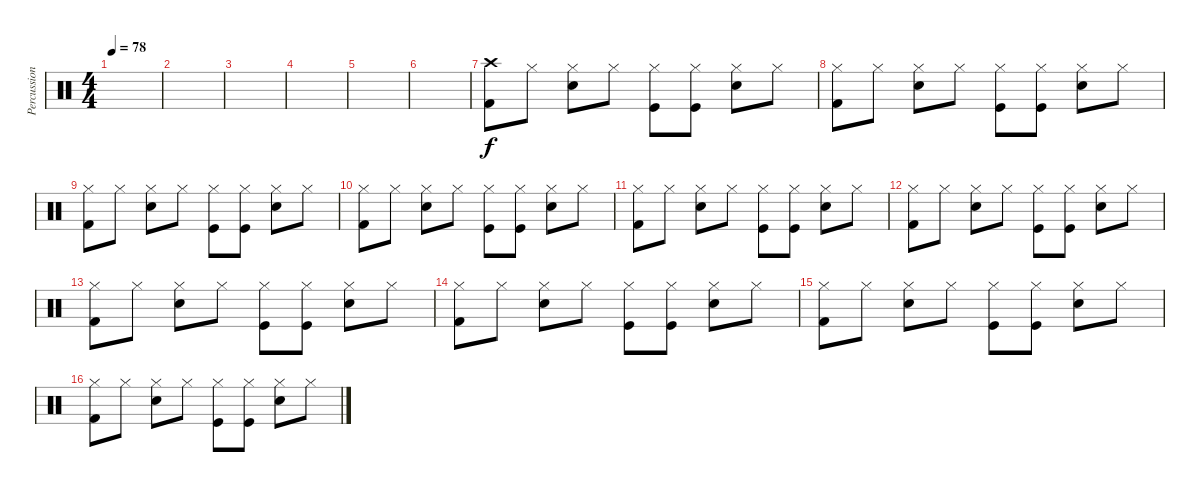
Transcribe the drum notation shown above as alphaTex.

\track ("Percussion" "Percussion") {instrument percussion}
\staff {score}
\articulation defaults
\ts (4 4)
\tempo 78
\clef neutral
\ks c
|
|
|
|
|
|
("Crash high (hit)" "Kick (hit) 2").8 "Hi-Hat (closed)".8 ("Hi-Hat (closed)" "Electric Snare (hit)").8 "Hi-Hat (closed)".8 ("Hi-Hat (closed)" "Kick (hit)").8 ("Hi-Hat (closed)" "Kick (hit)").8 ("Hi-Hat (closed)" "Electric Snare (hit)").8 "Hi-Hat (closed)".8 |
("Hi-Hat (closed)" "Kick (hit) 2").8 "Hi-Hat (closed)".8 ("Hi-Hat (closed)" "Electric Snare (hit)").8 "Hi-Hat (closed)".8 ("Hi-Hat (closed)" "Kick (hit)").8 ("Hi-Hat (closed)" "Kick (hit)").8 ("Hi-Hat (closed)" "Electric Snare (hit)").8 "Hi-Hat (closed)".8 |
("Hi-Hat (closed)" "Kick (hit) 2").8 "Hi-Hat (closed)".8 ("Hi-Hat (closed)" "Electric Snare (hit)").8 "Hi-Hat (closed)".8 ("Hi-Hat (closed)" "Kick (hit)").8 ("Hi-Hat (closed)" "Kick (hit)").8 ("Hi-Hat (closed)" "Electric Snare (hit)").8 "Hi-Hat (closed)".8 |
("Hi-Hat (closed)" "Kick (hit) 2").8 "Hi-Hat (closed)".8 ("Hi-Hat (closed)" "Electric Snare (hit)").8 "Hi-Hat (closed)".8 ("Hi-Hat (closed)" "Kick (hit)").8 ("Hi-Hat (closed)" "Kick (hit)").8 ("Hi-Hat (closed)" "Electric Snare (hit)").8 "Hi-Hat (closed)".8 |
("Hi-Hat (closed)" "Kick (hit) 2").8 "Hi-Hat (closed)".8 ("Hi-Hat (closed)" "Electric Snare (hit)").8 "Hi-Hat (closed)".8 ("Hi-Hat (closed)" "Kick (hit)").8 ("Hi-Hat (closed)" "Kick (hit)").8 ("Hi-Hat (closed)" "Electric Snare (hit)").8 "Hi-Hat (closed)".8 |
("Hi-Hat (closed)" "Kick (hit) 2").8 "Hi-Hat (closed)".8 ("Hi-Hat (closed)" "Electric Snare (hit)").8 "Hi-Hat (closed)".8 ("Hi-Hat (closed)" "Kick (hit)").8 ("Hi-Hat (closed)" "Kick (hit)").8 ("Hi-Hat (closed)" "Electric Snare (hit)").8 "Hi-Hat (closed)".8 |
("Hi-Hat (closed)" "Kick (hit) 2").8 "Hi-Hat (closed)".8 ("Hi-Hat (closed)" "Electric Snare (hit)").8 "Hi-Hat (closed)".8 ("Hi-Hat (closed)" "Kick (hit)").8 ("Hi-Hat (closed)" "Kick (hit)").8 ("Hi-Hat (closed)" "Electric Snare (hit)").8 "Hi-Hat (closed)".8 |
("Hi-Hat (closed)" "Kick (hit) 2").8 "Hi-Hat (closed)".8 ("Hi-Hat (closed)" "Electric Snare (hit)").8 "Hi-Hat (closed)".8 ("Hi-Hat (closed)" "Kick (hit)").8 ("Hi-Hat (closed)" "Kick (hit)").8 ("Hi-Hat (closed)" "Electric Snare (hit)").8 "Hi-Hat (closed)".8 |
("Hi-Hat (closed)" "Kick (hit) 2").8 "Hi-Hat (closed)".8 ("Hi-Hat (closed)" "Electric Snare (hit)").8 "Hi-Hat (closed)".8 ("Hi-Hat (closed)" "Kick (hit)").8 ("Hi-Hat (closed)" "Kick (hit)").8 ("Hi-Hat (closed)" "Electric Snare (hit)").8 "Hi-Hat (closed)".8 |
("Hi-Hat (closed)" "Kick (hit) 2").8 "Hi-Hat (closed)".8 ("Hi-Hat (closed)" "Electric Snare (hit)").8 "Hi-Hat (closed)".8 ("Hi-Hat (closed)" "Kick (hit)").8 ("Hi-Hat (closed)" "Kick (hit)").8 ("Hi-Hat (closed)" "Electric Snare (hit)").8 "Hi-Hat (closed)".8
